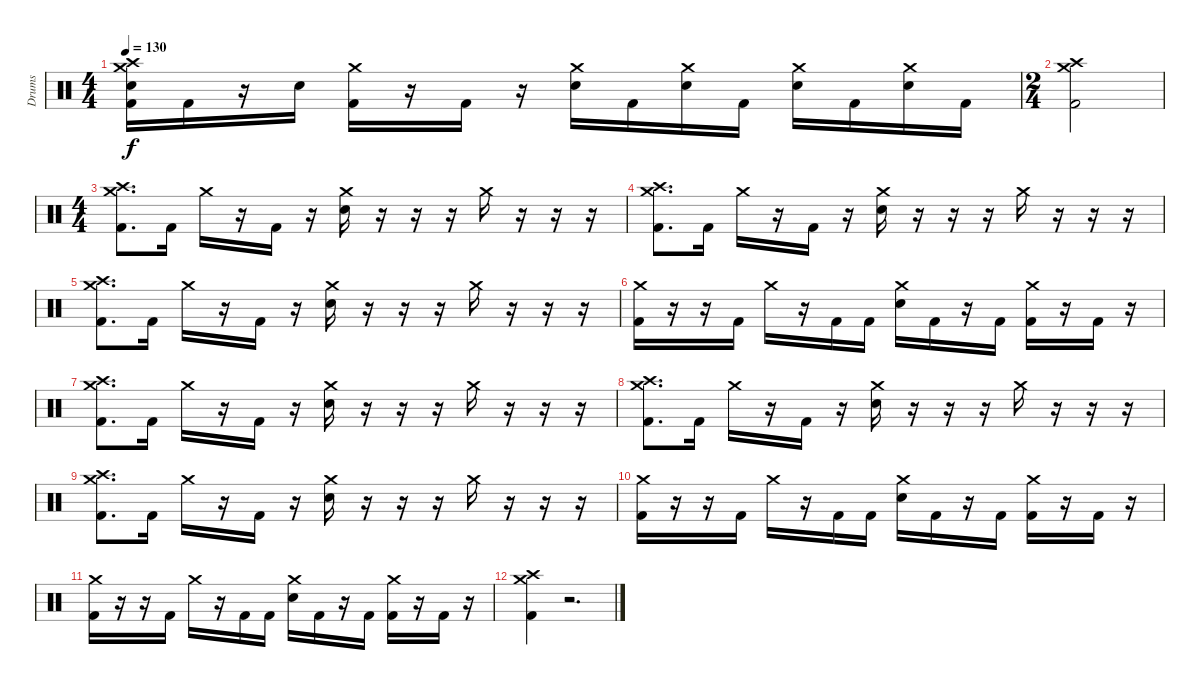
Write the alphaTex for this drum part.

\track ("Drums" "Drums") {instrument percussion}
\staff {score}
\articulation defaults
\ts (4 4)
\tempo 130
\clef neutral
\ks c
("Crash medium (hit)" "Crash high (hit)" "Snare (hit) 2" "Kick (hit) 2").16{dy f} "Kick (hit) 2".16 r.16 "Snare (hit) 2".16 ("Crash medium (hit)" "Kick (hit) 2").16 r.16 "Kick (hit) 2".16 r.16 ("Crash medium (hit)" "Snare (hit) 2").16 "Kick (hit) 2".16 ("Crash medium (hit)" "Snare (hit) 2").16 "Kick (hit) 2".16 ("Crash medium (hit)" "Snare (hit) 2").16 "Kick (hit) 2".16 ("Crash medium (hit)" "Snare (hit) 2").16 "Kick (hit) 2".16 |
\ts (2 4)
("Crash high (hit)" "Crash medium (hit)" "Kick (hit) 2").2 |
\ts (4 4)
("Crash medium (hit)" "Crash high (hit)" "Kick (hit) 2").8{d} "Kick (hit) 2".16 "Crash medium (hit)".16 r.16 "Kick (hit) 2".16 r.16 ("Crash medium (hit)" "Snare (hit) 2").16 r.16 r.16 r.16 "Crash medium (hit)".16 r.16 r.16 r.16 |
("Crash medium (hit)" "Crash high (hit)" "Kick (hit) 2").8{d} "Kick (hit) 2".16 "Crash medium (hit)".16 r.16 "Kick (hit) 2".16 r.16 ("Crash medium (hit)" "Snare (hit) 2").16 r.16 r.16 r.16 "Crash medium (hit)".16 r.16 r.16 r.16 |
("Crash medium (hit)" "Crash high (hit)" "Kick (hit) 2").8{d} "Kick (hit) 2".16 "Crash medium (hit)".16 r.16 "Kick (hit) 2".16 r.16 ("Crash medium (hit)" "Snare (hit) 2").16 r.16 r.16 r.16 "Crash medium (hit)".16 r.16 r.16 r.16 |
("Crash medium (hit)" "Kick (hit) 2").16 r.16 r.16 "Kick (hit) 2".16 "Crash medium (hit)".16 r.16 "Kick (hit) 2".16 "Kick (hit) 2".16 ("Crash medium (hit)" "Snare (hit) 2").16 "Kick (hit) 2".16 r.16 "Kick (hit) 2".16 ("Crash medium (hit)" "Kick (hit) 2").16 r.16 "Kick (hit) 2".16 r.16 |
("Crash medium (hit)" "Crash high (hit)" "Kick (hit) 2").8{d} "Kick (hit) 2".16 "Crash medium (hit)".16 r.16 "Kick (hit) 2".16 r.16 ("Crash medium (hit)" "Snare (hit) 2").16 r.16 r.16 r.16 "Crash medium (hit)".16 r.16 r.16 r.16 |
("Crash medium (hit)" "Crash high (hit)" "Kick (hit) 2").8{d} "Kick (hit) 2".16 "Crash medium (hit)".16 r.16 "Kick (hit) 2".16 r.16 ("Crash medium (hit)" "Snare (hit) 2").16 r.16 r.16 r.16 "Crash medium (hit)".16 r.16 r.16 r.16 |
("Crash medium (hit)" "Crash high (hit)" "Kick (hit) 2").8{d} "Kick (hit) 2".16 "Crash medium (hit)".16 r.16 "Kick (hit) 2".16 r.16 ("Crash medium (hit)" "Snare (hit) 2").16 r.16 r.16 r.16 "Crash medium (hit)".16 r.16 r.16 r.16 |
("Crash medium (hit)" "Kick (hit) 2").16 r.16 r.16 "Kick (hit) 2".16 "Crash medium (hit)".16 r.16 "Kick (hit) 2".16 "Kick (hit) 2".16 ("Crash medium (hit)" "Snare (hit) 2").16 "Kick (hit) 2".16 r.16 "Kick (hit) 2".16 ("Crash medium (hit)" "Kick (hit) 2").16 r.16 "Kick (hit) 2".16 r.16 |
("Crash medium (hit)" "Kick (hit) 2").16 r.16 r.16 "Kick (hit) 2".16 "Crash medium (hit)".16 r.16 "Kick (hit) 2".16 "Kick (hit) 2".16 ("Crash medium (hit)" "Snare (hit) 2").16 "Kick (hit) 2".16 r.16 "Kick (hit) 2".16 ("Crash medium (hit)" "Kick (hit) 2").16 r.16 "Kick (hit) 2".16 r.16 |
("Crash medium (hit)" "Crash high (hit)" "Kick (hit) 2").4 r.2{d}
